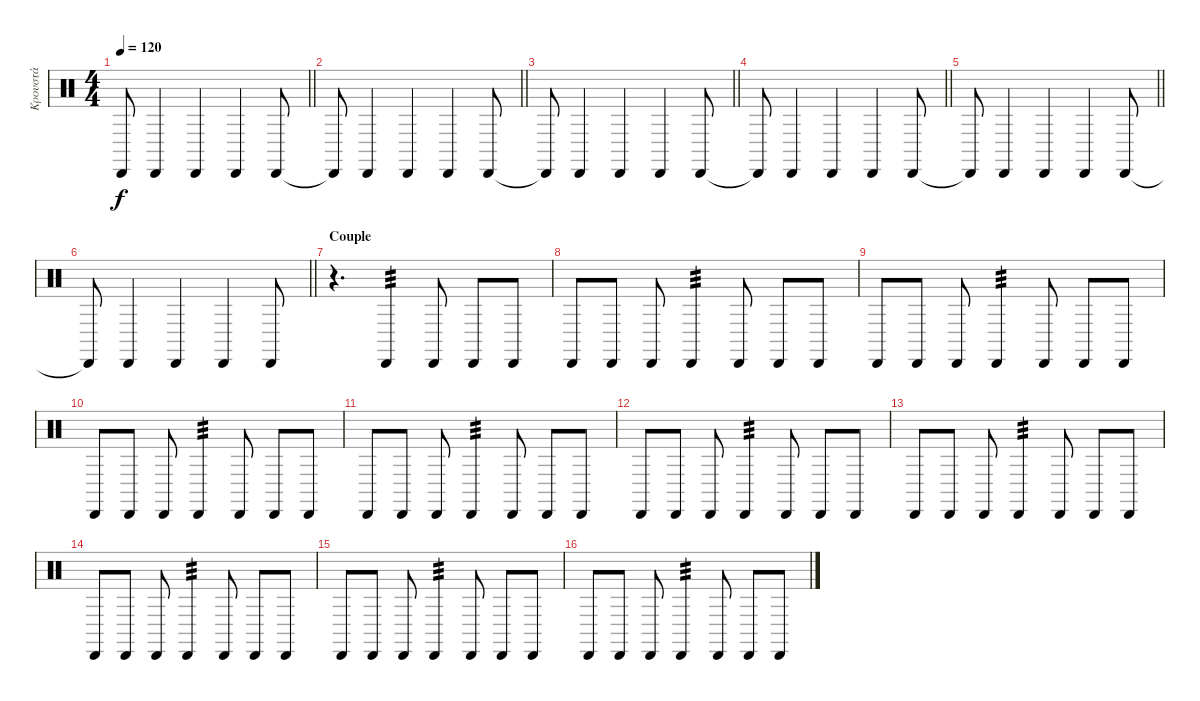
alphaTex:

\track ("Κρουστά" "Κρουστά") {instrument percussion}
\staff {score}
\articulation defaults
\ts (4 4)
\tempo 120
\clef neutral
\barLineRight lightlight
\ks c "Cabasa (hit)"{t}.8{dy f} "Cabasa (hit)".4 "Cabasa (hit)".4 "Cabasa (hit)".4 "Cabasa (hit)".8
|
\barLineRight lightlight "Cabasa (hit)"{t}.8 "Cabasa (hit)".4 "Cabasa (hit)".4 "Cabasa (hit)".4 "Cabasa (hit)".8
|
\barLineRight lightlight "Cabasa (hit)"{t}.8 "Cabasa (hit)".4 "Cabasa (hit)".4 "Cabasa (hit)".4 "Cabasa (hit)".8
|
\barLineRight lightlight "Cabasa (hit)"{t}.8 "Cabasa (hit)".4 "Cabasa (hit)".4 "Cabasa (hit)".4 "Cabasa (hit)".8
|
\barLineRight lightlight "Cabasa (hit)"{t}.8 "Cabasa (hit)".4 "Cabasa (hit)".4 "Cabasa (hit)".4 "Cabasa (hit)".8
|
\barLineRight lightlight "Cabasa (hit)"{t}.8 "Cabasa (hit)".4 "Cabasa (hit)".4 "Cabasa (hit)".4 "Cabasa (hit)".8
|
\section ("" "Couple")
r.4{d} "Cabasa (hit)".4{tp 3} "Cabasa (hit)".8 "Cabasa (hit)".8 "Cabasa (hit)".8 |
"Cabasa (hit)".8 "Cabasa (hit)".8 "Cabasa (hit)".8 "Cabasa (hit)".4{tp 3} "Cabasa (hit)".8 "Cabasa (hit)".8 "Cabasa (hit)".8 |
"Cabasa (hit)".8 "Cabasa (hit)".8 "Cabasa (hit)".8 "Cabasa (hit)".4{tp 3} "Cabasa (hit)".8 "Cabasa (hit)".8 "Cabasa (hit)".8 |
"Cabasa (hit)".8 "Cabasa (hit)".8 "Cabasa (hit)".8 "Cabasa (hit)".4{tp 3} "Cabasa (hit)".8 "Cabasa (hit)".8 "Cabasa (hit)".8 |
"Cabasa (hit)".8 "Cabasa (hit)".8 "Cabasa (hit)".8 "Cabasa (hit)".4{tp 3} "Cabasa (hit)".8 "Cabasa (hit)".8 "Cabasa (hit)".8 |
"Cabasa (hit)".8 "Cabasa (hit)".8 "Cabasa (hit)".8 "Cabasa (hit)".4{tp 3} "Cabasa (hit)".8 "Cabasa (hit)".8 "Cabasa (hit)".8 |
"Cabasa (hit)".8 "Cabasa (hit)".8 "Cabasa (hit)".8 "Cabasa (hit)".4{tp 3} "Cabasa (hit)".8 "Cabasa (hit)".8 "Cabasa (hit)".8 |
"Cabasa (hit)".8 "Cabasa (hit)".8 "Cabasa (hit)".8 "Cabasa (hit)".4{tp 3} "Cabasa (hit)".8 "Cabasa (hit)".8 "Cabasa (hit)".8 |
"Cabasa (hit)".8 "Cabasa (hit)".8 "Cabasa (hit)".8 "Cabasa (hit)".4{tp 3} "Cabasa (hit)".8 "Cabasa (hit)".8 "Cabasa (hit)".8 |
"Cabasa (hit)".8 "Cabasa (hit)".8 "Cabasa (hit)".8 "Cabasa (hit)".4{tp 3} "Cabasa (hit)".8 "Cabasa (hit)".8 "Cabasa (hit)".8
